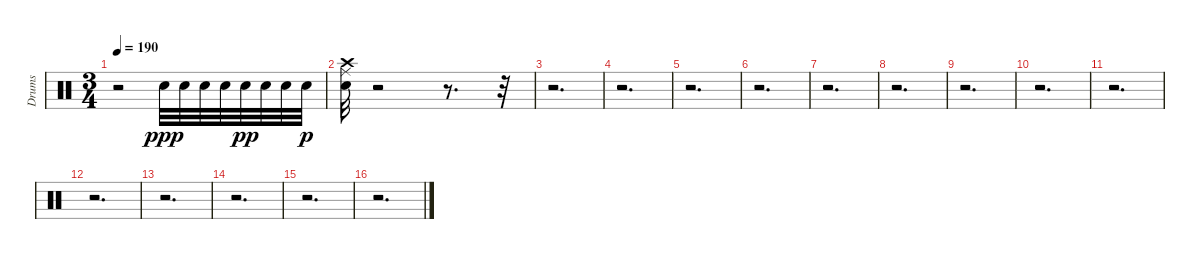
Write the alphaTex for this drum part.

\track ("Drums" "Drums") {instrument percussion}
\staff {score}
\articulation defaults
\ts (3 4)
\tempo 190
\clef neutral
\ks c
r.2{dy p} "Electric Snare (hit)".32{dy ppp} "Electric Snare (hit)".32 "Electric Snare (hit)".32 "Electric Snare (hit)".32 "Electric Snare (hit)".32{dy pp} "Electric Snare (hit)".32 "Electric Snare (hit)".32 "Electric Snare (hit)".32{dy p} |
("Crash high (hit)" "Ride (middle)" "Electric Snare (hit)").32 r.2 r.8{d} r.32 |
r.2{d} |
r.2{d} |
r.2{d} |
r.2{d} |
r.2{d} |
r.2{d} |
r.2{d} |
r.2{d} |
r.2{d} |
r.2{d} |
r.2{d} |
r.2{d} |
r.2{d} |
r.2{d}
